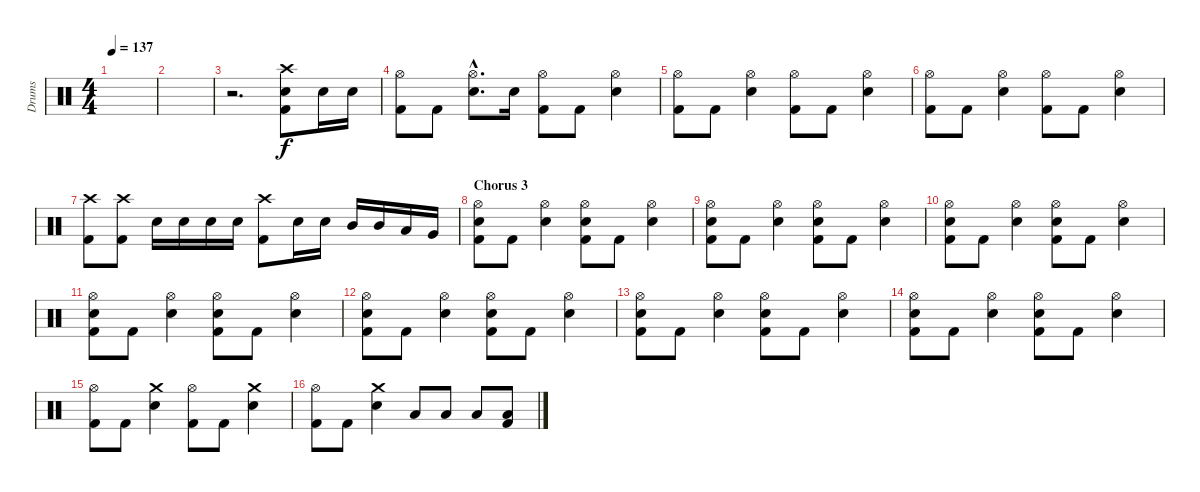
\track ("Drums" "Drums") {instrument percussion}
\staff {score}
\articulation defaults
\ts (4 4)
\tempo 137
\clef neutral
\ks c
|
|
r.2{d} ("Crash high (hit)" "Electric Snare (hit)" "Kick (hit) 2").8 "Electric Snare (hit)".16 "Electric Snare (hit)".16 |
("Hi-Hat (open)" "Kick (hit) 2").8 "Kick (hit) 2".8 ("Hi-Hat (open)"{hac} "Electric Snare (hit)"{hac}).8{d} "Electric Snare (hit)".16 ("Hi-Hat (open)" "Kick (hit) 2").8 "Kick (hit) 2".8 ("Hi-Hat (open)" "Electric Snare (hit)").4 |
("Hi-Hat (open)" "Kick (hit) 2").8 "Kick (hit) 2".8 ("Hi-Hat (open)" "Electric Snare (hit)").4 ("Hi-Hat (open)" "Kick (hit) 2").8 "Kick (hit) 2".8 ("Hi-Hat (open)" "Electric Snare (hit)").4 |
("Hi-Hat (open)" "Kick (hit) 2").8 "Kick (hit) 2".8 ("Hi-Hat (open)" "Electric Snare (hit)").4 ("Hi-Hat (open)" "Kick (hit) 2").8 "Kick (hit) 2".8 ("Hi-Hat (open)" "Electric Snare (hit)").4 |
("Crash high (hit)" "Kick (hit) 2").8 ("Crash high (hit)" "Kick (hit) 2").8 "Electric Snare (hit)".16 "Electric Snare (hit)".16 "Electric Snare (hit)".16 "Electric Snare (hit)".16 ("Crash high (hit)" "Kick (hit) 2").8 "Electric Snare (hit)".16 "Electric Snare (hit)".16 "Mid Tom (hit)".16 "Mid Tom (hit)".16 "Low Tom (hit)".16 "Very Low Tom (hit)".16 |
\section ("" "Chorus 3")
("Hi-Hat (open)" "Electric Snare (hit)" "Kick (hit) 2").8 "Kick (hit) 2".8 ("Hi-Hat (open)" "Electric Snare (hit)").4 ("Hi-Hat (open)" "Electric Snare (hit)" "Kick (hit) 2").8 "Kick (hit) 2".8 ("Hi-Hat (open)" "Electric Snare (hit)").4 |
("Hi-Hat (open)" "Electric Snare (hit)" "Kick (hit) 2").8 "Kick (hit) 2".8 ("Hi-Hat (open)" "Electric Snare (hit)").4 ("Hi-Hat (open)" "Electric Snare (hit)" "Kick (hit) 2").8 "Kick (hit) 2".8 ("Hi-Hat (open)" "Electric Snare (hit)").4 |
("Hi-Hat (open)" "Electric Snare (hit)" "Kick (hit) 2").8 "Kick (hit) 2".8 ("Hi-Hat (open)" "Electric Snare (hit)").4 ("Hi-Hat (open)" "Electric Snare (hit)" "Kick (hit) 2").8 "Kick (hit) 2".8 ("Hi-Hat (open)" "Electric Snare (hit)").4 |
("Hi-Hat (open)" "Electric Snare (hit)" "Kick (hit) 2").8 "Kick (hit) 2".8 ("Hi-Hat (open)" "Electric Snare (hit)").4 ("Hi-Hat (open)" "Electric Snare (hit)" "Kick (hit) 2").8 "Kick (hit) 2".8 ("Hi-Hat (open)" "Electric Snare (hit)").4 |
("Hi-Hat (open)" "Electric Snare (hit)" "Kick (hit) 2").8 "Kick (hit) 2".8 ("Hi-Hat (open)" "Electric Snare (hit)").4 ("Hi-Hat (open)" "Electric Snare (hit)" "Kick (hit) 2").8 "Kick (hit) 2".8 ("Hi-Hat (open)" "Electric Snare (hit)").4 |
("Hi-Hat (open)" "Electric Snare (hit)" "Kick (hit) 2").8 "Kick (hit) 2".8 ("Hi-Hat (open)" "Electric Snare (hit)").4 ("Hi-Hat (open)" "Electric Snare (hit)" "Kick (hit) 2").8 "Kick (hit) 2".8 ("Hi-Hat (open)" "Electric Snare (hit)").4 |
("Hi-Hat (open)" "Electric Snare (hit)" "Kick (hit) 2").8 "Kick (hit) 2".8 ("Hi-Hat (open)" "Electric Snare (hit)").4 ("Hi-Hat (open)" "Electric Snare (hit)" "Kick (hit) 2").8 "Kick (hit) 2".8 ("Hi-Hat (open)" "Electric Snare (hit)").4 |
("Hi-Hat (open)" "Kick (hit) 2").8 "Kick (hit) 2".8 ("Crash medium (hit)" "Electric Snare (hit)").4 ("Hi-Hat (open)" "Kick (hit) 2").8 "Kick (hit) 2".8 ("Crash medium (hit)" "Electric Snare (hit)").4 |
("Hi-Hat (open)" "Kick (hit) 2").8 "Kick (hit) 2".8 ("Crash medium (hit)" "Electric Snare (hit)").4 "Low Tom (hit)".8 "Low Tom (hit)".8 "Low Tom (hit)".8 ("Low Tom (hit)" "Kick (hit) 2").8
